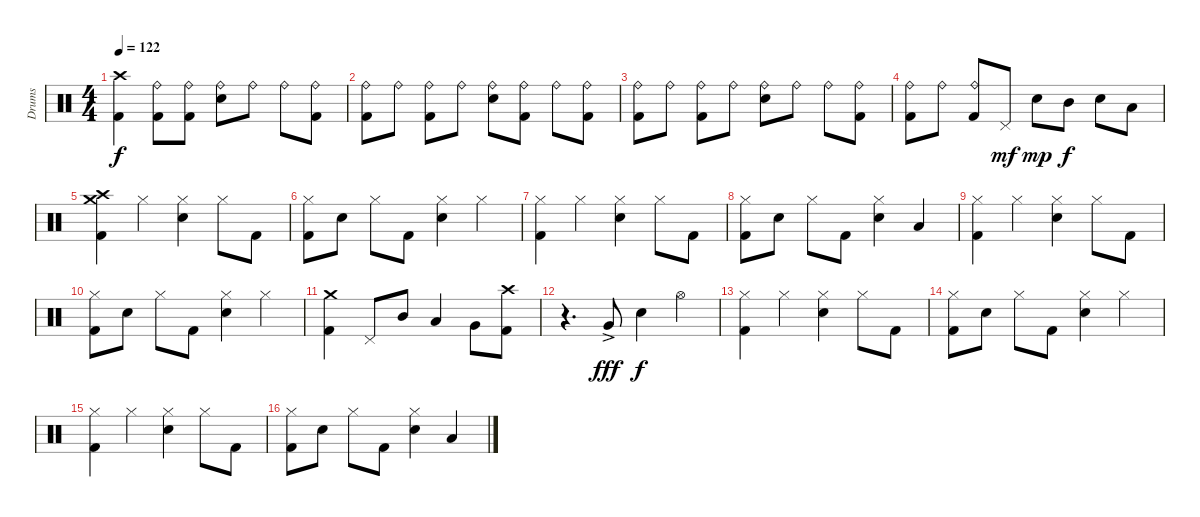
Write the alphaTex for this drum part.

\track ("Drums" "Drums") {instrument percussion}
\staff {score}
\articulation defaults
\ts (4 4)
\tempo 122
\clef neutral
\ks c
("Crash high (hit)" "Kick (hit) 2").4{dy f} ("Ride (bell)" "Kick (hit) 2").8 ("Ride (bell)" "Kick (hit) 2").8 ("Ride (bell)" "Snare (hit) 2").8 "Ride (bell)".8 "Ride (bell)".8 ("Ride (bell)" "Kick (hit) 2").8 |
("Ride (bell)" "Kick (hit) 2").8 "Ride (bell)".8 ("Ride (bell)" "Kick (hit) 2").8 "Ride (bell)".8 ("Ride (bell)" "Snare (hit) 2").8 ("Ride (bell)" "Kick (hit) 2").8 "Ride (bell)".8 ("Ride (bell)" "Kick (hit) 2").8 |
("Ride (bell)" "Kick (hit) 2").8 "Ride (bell)".8 ("Ride (bell)" "Kick (hit) 2").8 "Ride (bell)".8 ("Ride (bell)" "Snare (hit) 2").8 "Ride (bell)".8 "Ride (bell)".8 ("Ride (bell)" "Kick (hit) 2").8 |
("Ride (bell)" "Kick (hit) 2").8 "Ride (bell)".8 ("Ride (bell)" "Kick (hit) 2").8 "Pedal Hi-Hat (hit)".8{dy mf} "Snare (hit) 2".8{dy mp} "Mid Tom (hit)".8{dy f} "Snare (hit) 2".8 "Low Tom (hit)".8 |
("Crash high (hit)" "Crash medium (hit)" "Kick (hit) 2").4 "Hi-Hat (closed)".4 ("Hi-Hat (closed)" "Snare (hit) 2").4 "Hi-Hat (closed)".8 "Kick (hit) 2".8 |
("Hi-Hat (closed)" "Kick (hit) 2").8 "Snare (hit) 2".8 "Hi-Hat (closed)".8 "Kick (hit) 2".8 ("Hi-Hat (closed)" "Snare (hit) 2").4 "Hi-Hat (closed)".4 |
("Hi-Hat (closed)" "Kick (hit) 2").4 "Hi-Hat (closed)".4 ("Hi-Hat (closed)" "Snare (hit) 2").4 "Hi-Hat (closed)".8 "Kick (hit) 2".8 |
("Hi-Hat (closed)" "Kick (hit) 2").8 "Snare (hit) 2".8 "Hi-Hat (closed)".8 "Kick (hit) 2".8 ("Hi-Hat (closed)" "Snare (hit) 2").4 "Low Tom (hit)".4 |
("Hi-Hat (closed)" "Kick (hit) 2").4 "Hi-Hat (closed)".4 ("Hi-Hat (closed)" "Snare (hit) 2").4 "Hi-Hat (closed)".8 "Kick (hit) 2".8 |
("Hi-Hat (closed)" "Kick (hit) 2").8 "Snare (hit) 2".8 "Hi-Hat (closed)".8 "Kick (hit) 2".8 ("Hi-Hat (closed)" "Snare (hit) 2").4 "Hi-Hat (closed)".4 |
("Crash medium (hit)" "Kick (hit) 2").4 "Pedal Hi-Hat (hit)".8 "Mid Tom (hit)".8 "Low Tom (hit)".4 "Very Low Tom (hit)".8 ("Crash high (hit)" "Kick (hit) 2").8 |
r.4{d} "Very Low Tom (hit)"{ac}.8{dy fff} "Snare (hit) 2".4{dy f} "Hi-Hat (open)".4 |
("Hi-Hat (closed)" "Kick (hit) 2").4 "Hi-Hat (closed)".4 ("Hi-Hat (closed)" "Snare (hit) 2").4 "Hi-Hat (closed)".8 "Kick (hit) 2".8 |
("Hi-Hat (closed)" "Kick (hit) 2").8 "Snare (hit) 2".8 "Hi-Hat (closed)".8 "Kick (hit) 2".8 ("Hi-Hat (closed)" "Snare (hit) 2").4 "Hi-Hat (closed)".4 |
("Hi-Hat (closed)" "Kick (hit) 2").4 "Hi-Hat (closed)".4 ("Hi-Hat (closed)" "Snare (hit) 2").4 "Hi-Hat (closed)".8 "Kick (hit) 2".8 |
("Hi-Hat (closed)" "Kick (hit) 2").8 "Snare (hit) 2".8 "Hi-Hat (closed)".8 "Kick (hit) 2".8 ("Hi-Hat (closed)" "Snare (hit) 2").4 "Low Tom (hit)".4
